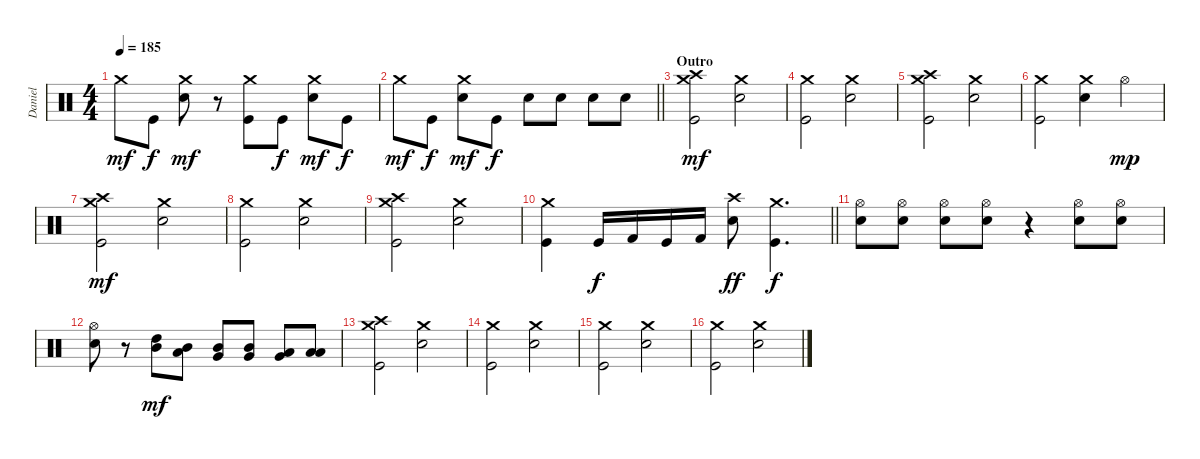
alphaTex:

\track ("Daniel" "Daniel") {instrument percussion}
\staff {score}
\articulation defaults
\ts (4 4)
\tempo 185
\clef neutral
\ks c "Crash medium (hit)".8{dy mf} "Kick (hit)".8{dy f}
("Electric Snare (hit)" "Crash medium (hit)").8{dy mf} r.8 ("Kick (hit)" "Crash medium (hit)").8 "Kick (hit)".8{dy f} ("Electric Snare (hit)" "Crash medium (hit)").8{dy mf} "Kick (hit)".8{dy f} |
\barLineRight lightlight "Crash medium (hit)".8{dy mf} "Kick (hit)".8{dy f}
("Electric Snare (hit)" "Crash medium (hit)").8{dy mf} "Kick (hit)".8{dy f} "Electric Snare (hit)".8 "Electric Snare (hit)".8 "Electric Snare (hit)".8 "Electric Snare (hit)".8 |
\section ("" "Outro")
("Kick (hit)" "Crash medium (hit)" "Crash high (hit)").2{dy mf} ("Electric Snare (hit)" "Crash medium (hit)").2 |
("Kick (hit)" "Crash medium (hit)").2 ("Electric Snare (hit)" "Crash medium (hit)").2 |
("Kick (hit)" "Crash medium (hit)" "Crash high (hit)").2 ("Electric Snare (hit)" "Crash medium (hit)").2 |
("Kick (hit)" "Crash medium (hit)").2 ("Electric Snare (hit)" "Crash medium (hit)").4 "Hi-Hat (open)".4{dy mp} |
("Kick (hit)" "Crash medium (hit)" "Crash high (hit)").2{dy mf} ("Electric Snare (hit)" "Crash medium (hit)").2 |
("Kick (hit)" "Crash medium (hit)").2 ("Electric Snare (hit)" "Crash medium (hit)").2 |
("Kick (hit)" "Crash medium (hit)" "Crash high (hit)").2 ("Electric Snare (hit)" "Crash medium (hit)").2 |
\barLineRight lightlight
("Kick (hit)" "Crash medium (hit)").4 "Kick (hit)".16{dy f} "Kick (hit) 2".16 "Kick (hit)".16 "Kick (hit) 2".16 ("Electric Snare (hit)" "Crash high (hit)").8{dy ff} ("Kick (hit)" "Crash medium (hit)").4{d dy f} |
("Electric Snare (hit)" "Hi-Hat (open)").8 ("Electric Snare (hit)" "Hi-Hat (open)").8 ("Electric Snare (hit)" "Hi-Hat (open)").8 ("Electric Snare (hit)" "Hi-Hat (open)").8 r.4 ("Electric Snare (hit)" "Hi-Hat (open)").8 ("Electric Snare (hit)" "Hi-Hat (open)").8 |
("Electric Snare (hit)" "Hi-Hat (open)").8 r.8 ("Mid Tom (hit)" "High Tom (hit)").8{dy mf} ("Low Tom (hit)" "Mid Tom (hit)").8 ("Very Low Tom (hit)" "Mid Tom (hit)").8 ("Very Low Tom (hit)" "Mid Tom (hit)").8 ("Very Low Tom (hit)" "Low Tom (hit)").8 ("Low Floor Tom (hit)" "Low Tom (hit)").8 |
("Kick (hit)" "Crash medium (hit)" "Crash high (hit)").2 ("Electric Snare (hit)" "Crash medium (hit)").2 |
("Kick (hit)" "Crash medium (hit)").2 ("Electric Snare (hit)" "Crash medium (hit)").2 |
("Kick (hit)" "Crash medium (hit)").2 ("Electric Snare (hit)" "Crash medium (hit)").2 |
("Kick (hit)" "Crash medium (hit)").2 ("Electric Snare (hit)" "Crash medium (hit)").2
